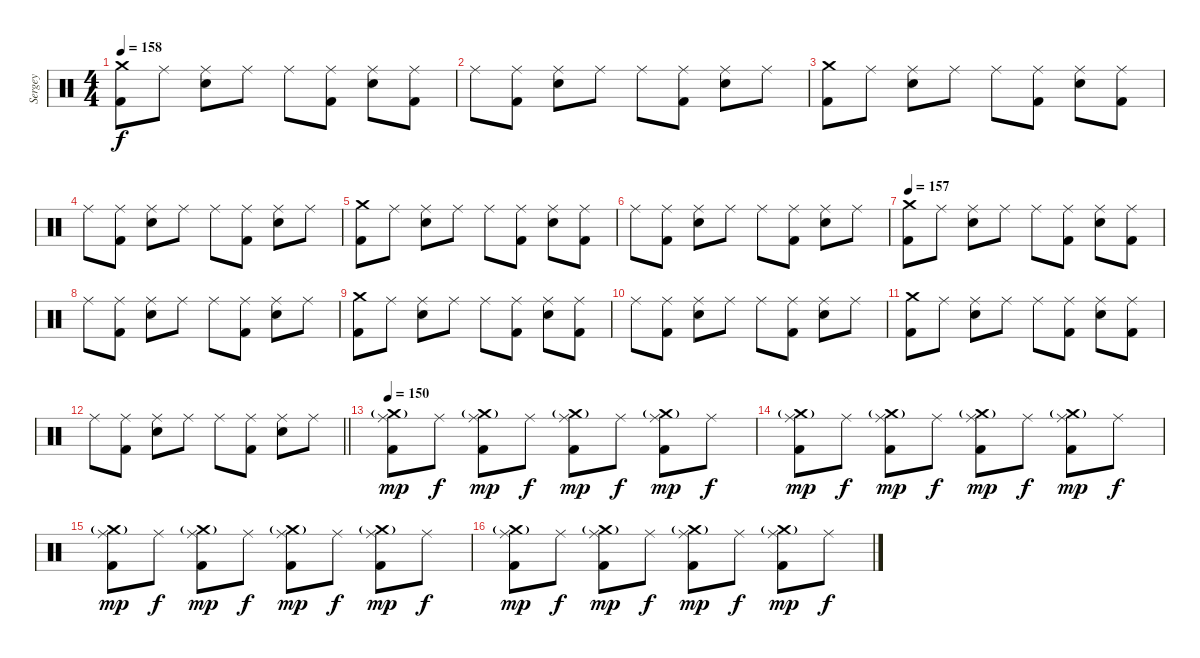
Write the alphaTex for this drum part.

\track ("Sergey" "Sergey") {instrument percussion}
\staff {score}
\articulation defaults
\ts (4 4)
\tempo 158
\clef neutral
\ks c
("Crash medium (hit)" "Kick (hit) 2").8{dy f} "Ride (middle)".8 ("Ride (middle)" "Electric Snare (hit)").8 "Ride (middle)".8 "Ride (middle)".8 ("Ride (middle)" "Kick (hit) 2").8 ("Ride (middle)" "Electric Snare (hit)").8 ("Ride (middle)" "Kick (hit) 2").8 |
"Ride (middle)".8 ("Ride (middle)" "Kick (hit) 2").8 ("Ride (middle)" "Electric Snare (hit)").8 "Ride (middle)".8 "Ride (middle)".8 ("Ride (middle)" "Kick (hit) 2").8 ("Ride (middle)" "Electric Snare (hit)").8 "Ride (middle)".8 |
("Crash medium (hit)" "Kick (hit) 2").8 "Ride (middle)".8 ("Ride (middle)" "Electric Snare (hit)").8 "Ride (middle)".8 "Ride (middle)".8 ("Ride (middle)" "Kick (hit) 2").8 ("Ride (middle)" "Electric Snare (hit)").8 ("Ride (middle)" "Kick (hit) 2").8 |
"Ride (middle)".8 ("Ride (middle)" "Kick (hit) 2").8 ("Ride (middle)" "Electric Snare (hit)").8 "Ride (middle)".8 "Ride (middle)".8 ("Ride (middle)" "Kick (hit) 2").8 ("Ride (middle)" "Electric Snare (hit)").8 "Ride (middle)".8 |
("Crash medium (hit)" "Kick (hit) 2").8 "Ride (middle)".8 ("Ride (middle)" "Electric Snare (hit)").8 "Ride (middle)".8 "Ride (middle)".8 ("Ride (middle)" "Kick (hit) 2").8 ("Ride (middle)" "Electric Snare (hit)").8 ("Ride (middle)" "Kick (hit) 2").8 |
"Ride (middle)".8 ("Ride (middle)" "Kick (hit) 2").8 ("Ride (middle)" "Electric Snare (hit)").8 "Ride (middle)".8 "Ride (middle)".8 ("Ride (middle)" "Kick (hit) 2").8 ("Ride (middle)" "Electric Snare (hit)").8 "Ride (middle)".8 |
\tempo 157
("Crash medium (hit)" "Kick (hit) 2").8 "Ride (middle)".8 ("Ride (middle)" "Electric Snare (hit)").8 "Ride (middle)".8 "Ride (middle)".8 ("Ride (middle)" "Kick (hit) 2").8 ("Ride (middle)" "Electric Snare (hit)").8 ("Ride (middle)" "Kick (hit) 2").8 |
"Ride (middle)".8 ("Ride (middle)" "Kick (hit) 2").8 ("Ride (middle)" "Electric Snare (hit)").8 "Ride (middle)".8 "Ride (middle)".8 ("Ride (middle)" "Kick (hit) 2").8 ("Ride (middle)" "Electric Snare (hit)").8 "Ride (middle)".8 |
("Crash medium (hit)" "Kick (hit) 2").8 "Ride (middle)".8 ("Ride (middle)" "Electric Snare (hit)").8 "Ride (middle)".8 "Ride (middle)".8 ("Ride (middle)" "Kick (hit) 2").8 ("Ride (middle)" "Electric Snare (hit)").8 ("Ride (middle)" "Kick (hit) 2").8 |
"Ride (middle)".8 ("Ride (middle)" "Kick (hit) 2").8 ("Ride (middle)" "Electric Snare (hit)").8 "Ride (middle)".8 "Ride (middle)".8 ("Ride (middle)" "Kick (hit) 2").8 ("Ride (middle)" "Electric Snare (hit)").8 "Ride (middle)".8 |
("Crash medium (hit)" "Kick (hit) 2").8 "Ride (middle)".8 ("Ride (middle)" "Electric Snare (hit)").8 "Ride (middle)".8 "Ride (middle)".8 ("Ride (middle)" "Kick (hit) 2").8 ("Ride (middle)" "Electric Snare (hit)").8 ("Ride (middle)" "Kick (hit) 2").8 |
\barLineRight lightlight "Ride (middle)".8
("Ride (middle)" "Kick (hit) 2").8 ("Ride (middle)" "Electric Snare (hit)").8 "Ride (middle)".8 "Ride (middle)".8 ("Ride (middle)" "Kick (hit) 2").8 ("Ride (middle)" "Electric Snare (hit)").8 "Ride (middle)".8 |
\section ("" "")
\tempo 150
("Ride (middle)" "Crash medium (hit)"{g} "Kick (hit) 2").8{dy mp} "Ride (middle)".8{dy f} ("Ride (middle)" "Crash medium (hit)"{g} "Kick (hit) 2").8{dy mp} "Ride (middle)".8{dy f} ("Ride (middle)" "Crash medium (hit)"{g} "Kick (hit) 2").8{dy mp} "Ride (middle)".8{dy f} ("Ride (middle)" "Crash medium (hit)"{g} "Kick (hit) 2").8{dy mp} "Ride (middle)".8{dy f} |
("Ride (middle)" "Crash medium (hit)"{g} "Kick (hit) 2").8{dy mp} "Ride (middle)".8{dy f} ("Ride (middle)" "Crash medium (hit)"{g} "Kick (hit) 2").8{dy mp} "Ride (middle)".8{dy f} ("Ride (middle)" "Crash medium (hit)"{g} "Kick (hit) 2").8{dy mp} "Ride (middle)".8{dy f} ("Ride (middle)" "Crash medium (hit)"{g} "Kick (hit) 2").8{dy mp} "Ride (middle)".8{dy f} |
("Ride (middle)" "Crash medium (hit)"{g} "Kick (hit) 2").8{dy mp} "Ride (middle)".8{dy f} ("Ride (middle)" "Crash medium (hit)"{g} "Kick (hit) 2").8{dy mp} "Ride (middle)".8{dy f} ("Ride (middle)" "Crash medium (hit)"{g} "Kick (hit) 2").8{dy mp} "Ride (middle)".8{dy f} ("Ride (middle)" "Crash medium (hit)"{g} "Kick (hit) 2").8{dy mp} "Ride (middle)".8{dy f} |
("Ride (middle)" "Crash medium (hit)"{g} "Kick (hit) 2").8{dy mp} "Ride (middle)".8{dy f} ("Ride (middle)" "Crash medium (hit)"{g} "Kick (hit) 2").8{dy mp} "Ride (middle)".8{dy f} ("Ride (middle)" "Crash medium (hit)"{g} "Kick (hit) 2").8{dy mp} "Ride (middle)".8{dy f} ("Ride (middle)" "Crash medium (hit)"{g} "Kick (hit) 2").8{dy mp} "Ride (middle)".8{dy f}
